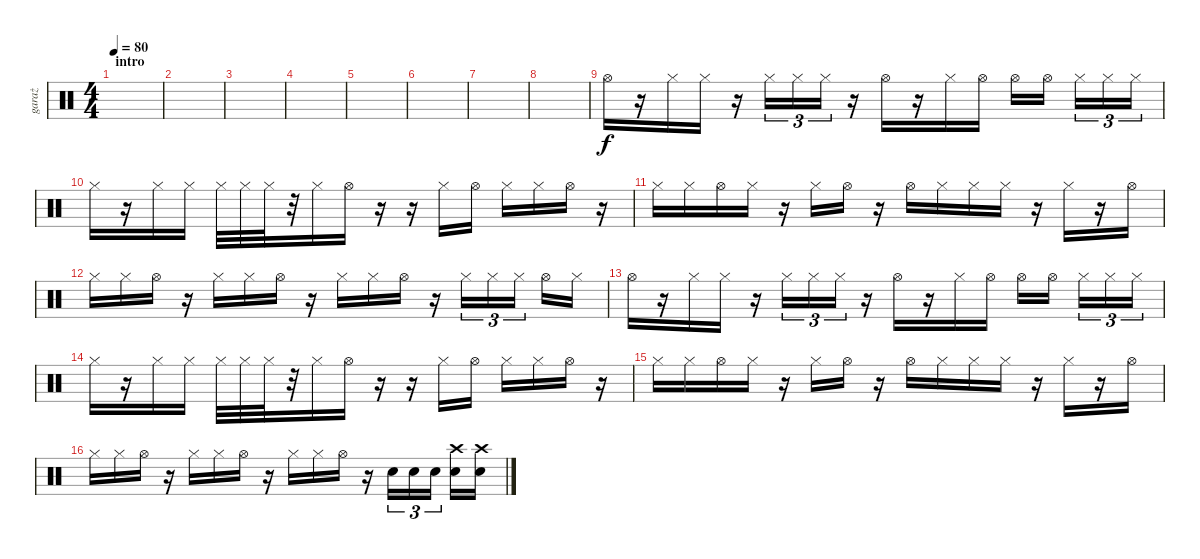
\track ("garaż" "garaż") {instrument percussion}
\staff {score}
\articulation defaults
\ts (4 4)
\section ("" "intro")
\tempo 80
\clef neutral
\ks c
|
|
|
|
|
|
|
|
"Hi-Hat (open)".16 r.16 "Hi-Hat (closed)".16 "Hi-Hat (closed)".16 r.16 "Hi-Hat (closed)".16{tu (3 2)} "Hi-Hat (closed)".16{tu (3 2)} "Hi-Hat (closed)".16{tu (3 2)} r.16 "Hi-Hat (open)".16 r.16 "Hi-Hat (closed)".16 "Hi-Hat (open)".16 "Hi-Hat (open)".16 "Hi-Hat (open)".16 "Hi-Hat (closed)".16{tu (3 2)} "Hi-Hat (closed)".16{tu (3 2)} "Hi-Hat (closed)".16{tu (3 2)} |
"Hi-Hat (closed)".16 r.16 "Hi-Hat (closed)".16 "Hi-Hat (closed)".16 "Hi-Hat (closed)".32 "Hi-Hat (closed)".32 "Hi-Hat (closed)".32 r.32 "Hi-Hat (closed)".16 "Hi-Hat (open)".16 r.16 r.16 "Hi-Hat (closed)".16 "Hi-Hat (open)".16 "Hi-Hat (closed)".16 "Hi-Hat (closed)".16 "Hi-Hat (open)".16 r.16 |
"Hi-Hat (closed)".16 "Hi-Hat (closed)".16 "Hi-Hat (open)".16 "Hi-Hat (closed)".16 r.16 "Hi-Hat (closed)".16 "Hi-Hat (open)".16 r.16 "Hi-Hat (open)".16 "Hi-Hat (closed)".16 "Hi-Hat (closed)".16 "Hi-Hat (closed)".16 r.16 "Hi-Hat (closed)".16 r.16 "Hi-Hat (open)".16 |
"Hi-Hat (closed)".16 "Hi-Hat (closed)".16 "Hi-Hat (open)".16 r.16 "Hi-Hat (closed)".16 "Hi-Hat (closed)".16 "Hi-Hat (open)".16 r.16 "Hi-Hat (closed)".16 "Hi-Hat (closed)".16 "Hi-Hat (open)".16 r.16 "Hi-Hat (closed)".16{tu (3 2)} "Hi-Hat (closed)".16{tu (3 2)} "Hi-Hat (closed)".16{tu (3 2)} "Hi-Hat (open)".16 "Hi-Hat (closed)".16 |
"Hi-Hat (open)".16 r.16 "Hi-Hat (closed)".16 "Hi-Hat (closed)".16 r.16 "Hi-Hat (closed)".16{tu (3 2)} "Hi-Hat (closed)".16{tu (3 2)} "Hi-Hat (closed)".16{tu (3 2)} r.16 "Hi-Hat (open)".16 r.16 "Hi-Hat (closed)".16 "Hi-Hat (open)".16 "Hi-Hat (open)".16 "Hi-Hat (open)".16 "Hi-Hat (closed)".16{tu (3 2)} "Hi-Hat (closed)".16{tu (3 2)} "Hi-Hat (closed)".16{tu (3 2)} |
"Hi-Hat (closed)".16 r.16 "Hi-Hat (closed)".16 "Hi-Hat (closed)".16 "Hi-Hat (closed)".32 "Hi-Hat (closed)".32 "Hi-Hat (closed)".32 r.32 "Hi-Hat (closed)".16 "Hi-Hat (open)".16 r.16 r.16 "Hi-Hat (closed)".16 "Hi-Hat (open)".16 "Hi-Hat (closed)".16 "Hi-Hat (closed)".16 "Hi-Hat (open)".16 r.16 |
"Hi-Hat (closed)".16 "Hi-Hat (closed)".16 "Hi-Hat (open)".16 "Hi-Hat (closed)".16 r.16 "Hi-Hat (closed)".16 "Hi-Hat (open)".16 r.16 "Hi-Hat (open)".16 "Hi-Hat (closed)".16 "Hi-Hat (closed)".16 "Hi-Hat (closed)".16 r.16 "Hi-Hat (closed)".16 r.16 "Hi-Hat (open)".16 |
"Hi-Hat (closed)".16 "Hi-Hat (closed)".16 "Hi-Hat (open)".16 r.16 "Hi-Hat (closed)".16 "Hi-Hat (closed)".16 "Hi-Hat (open)".16 r.16 "Hi-Hat (closed)".16 "Hi-Hat (closed)".16 "Hi-Hat (open)".16 r.16 "Snare (hit) 2".16{tu (3 2)} "Snare (hit) 2".16{tu (3 2)} "Snare (hit) 2".16{tu (3 2)} ("Crash high (hit)" "Snare (hit) 2").16 ("Crash high (hit)" "Snare (hit) 2").16
